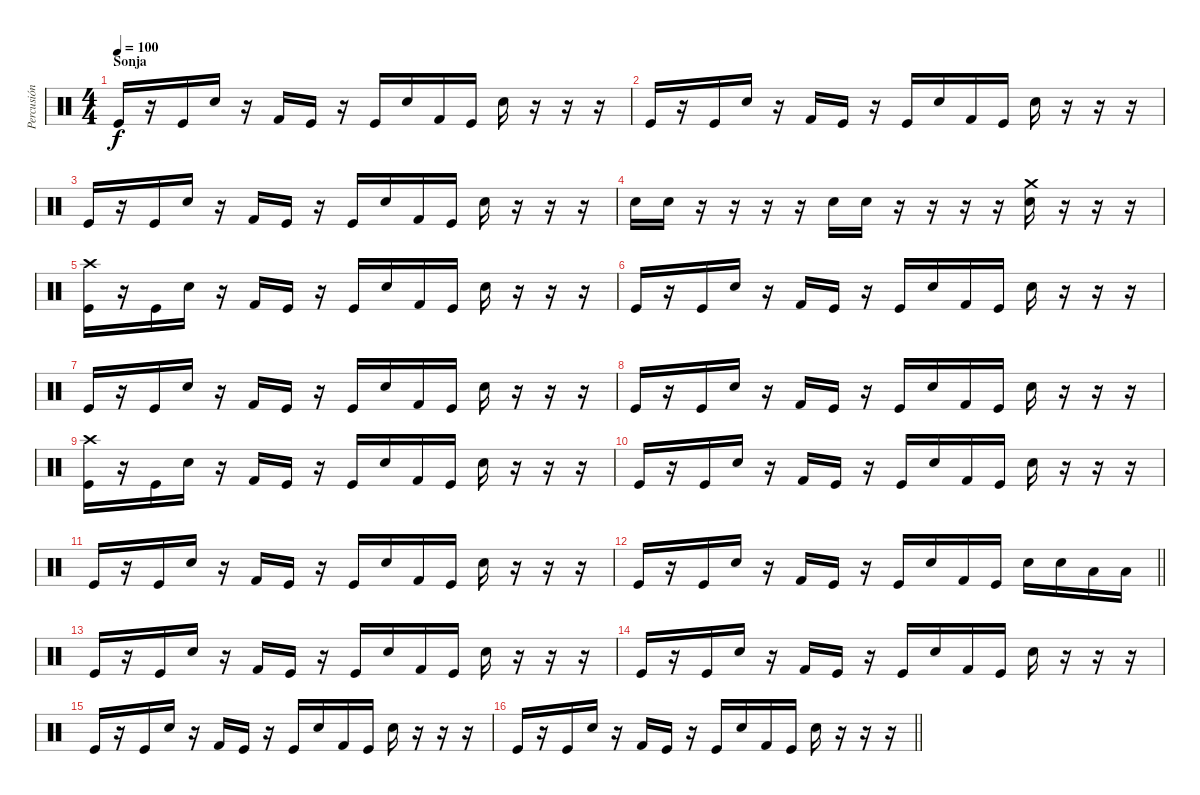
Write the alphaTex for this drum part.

\track ("Percusión" "Percusión") {instrument percussion}
\staff {score}
\articulation defaults
\ts (4 4)
\section ("" "Sonja")
\tempo 100
\clef neutral
\ks c "Kick (hit)".16{dy f}
r.16 "Kick (hit)".16 "Electric Snare (hit)".16 r.16 "Kick (hit) 2".16 "Kick (hit)".16 r.16 "Kick (hit)".16 "Electric Snare (hit)".16 "Kick (hit) 2".16 "Kick (hit)".16 "Electric Snare (hit)".16 r.16 r.16 r.16 |
"Kick (hit)".16 r.16 "Kick (hit)".16 "Electric Snare (hit)".16 r.16 "Kick (hit) 2".16 "Kick (hit)".16 r.16 "Kick (hit)".16 "Electric Snare (hit)".16 "Kick (hit) 2".16 "Kick (hit)".16 "Electric Snare (hit)".16 r.16 r.16 r.16 |
"Kick (hit)".16 r.16 "Kick (hit)".16 "Electric Snare (hit)".16 r.16 "Kick (hit) 2".16 "Kick (hit)".16 r.16 "Kick (hit)".16 "Electric Snare (hit)".16 "Kick (hit) 2".16 "Kick (hit)".16 "Electric Snare (hit)".16 r.16 r.16 r.16 |
"Electric Snare (hit)".16 "Electric Snare (hit)".16 r.16 r.16 r.16 r.16 "Electric Snare (hit)".16 "Electric Snare (hit)".16 r.16 r.16 r.16 r.16 ("Crash medium (hit)" "Electric Snare (hit)").16 r.16 r.16 r.16 |
("Crash high (hit)" "Kick (hit)").16 r.16 "Kick (hit)".16 "Electric Snare (hit)".16 r.16 "Kick (hit) 2".16 "Kick (hit)".16 r.16 "Kick (hit)".16 "Electric Snare (hit)".16 "Kick (hit) 2".16 "Kick (hit)".16 "Electric Snare (hit)".16 r.16 r.16 r.16 |
"Kick (hit)".16 r.16 "Kick (hit)".16 "Electric Snare (hit)".16 r.16 "Kick (hit) 2".16 "Kick (hit)".16 r.16 "Kick (hit)".16 "Electric Snare (hit)".16 "Kick (hit) 2".16 "Kick (hit)".16 "Electric Snare (hit)".16 r.16 r.16 r.16 |
"Kick (hit)".16 r.16 "Kick (hit)".16 "Electric Snare (hit)".16 r.16 "Kick (hit) 2".16 "Kick (hit)".16 r.16 "Kick (hit)".16 "Electric Snare (hit)".16 "Kick (hit) 2".16 "Kick (hit)".16 "Electric Snare (hit)".16 r.16 r.16 r.16 |
"Kick (hit)".16 r.16 "Kick (hit)".16 "Electric Snare (hit)".16 r.16 "Kick (hit) 2".16 "Kick (hit)".16 r.16 "Kick (hit)".16 "Electric Snare (hit)".16 "Kick (hit) 2".16 "Kick (hit)".16 "Electric Snare (hit)".16 r.16 r.16 r.16 |
("Crash high (hit)" "Kick (hit)").16 r.16 "Kick (hit)".16 "Electric Snare (hit)".16 r.16 "Kick (hit) 2".16 "Kick (hit)".16 r.16 "Kick (hit)".16 "Electric Snare (hit)".16 "Kick (hit) 2".16 "Kick (hit)".16 "Electric Snare (hit)".16 r.16 r.16 r.16 |
"Kick (hit)".16 r.16 "Kick (hit)".16 "Electric Snare (hit)".16 r.16 "Kick (hit) 2".16 "Kick (hit)".16 r.16 "Kick (hit)".16 "Electric Snare (hit)".16 "Kick (hit) 2".16 "Kick (hit)".16 "Electric Snare (hit)".16 r.16 r.16 r.16 |
"Kick (hit)".16 r.16 "Kick (hit)".16 "Electric Snare (hit)".16 r.16 "Kick (hit) 2".16 "Kick (hit)".16 r.16 "Kick (hit)".16 "Electric Snare (hit)".16 "Kick (hit) 2".16 "Kick (hit)".16 "Electric Snare (hit)".16 r.16 r.16 r.16 |
\barLineRight lightlight "Kick (hit)".16
r.16 "Kick (hit)".16 "Electric Snare (hit)".16 r.16 "Kick (hit) 2".16 "Kick (hit)".16 r.16 "Kick (hit)".16 "Electric Snare (hit)".16 "Kick (hit) 2".16 "Kick (hit)".16 "Electric Snare (hit)".16 "Electric Snare (hit)".16 "Low Tom (hit)".16 "Low Tom (hit)".16 |
"Kick (hit)".16 r.16 "Kick (hit)".16 "Electric Snare (hit)".16 r.16 "Kick (hit) 2".16 "Kick (hit)".16 r.16 "Kick (hit)".16 "Electric Snare (hit)".16 "Kick (hit) 2".16 "Kick (hit)".16 "Electric Snare (hit)".16 r.16 r.16 r.16 |
"Kick (hit)".16 r.16 "Kick (hit)".16 "Electric Snare (hit)".16 r.16 "Kick (hit) 2".16 "Kick (hit)".16 r.16 "Kick (hit)".16 "Electric Snare (hit)".16 "Kick (hit) 2".16 "Kick (hit)".16 "Electric Snare (hit)".16 r.16 r.16 r.16 |
"Kick (hit)".16 r.16 "Kick (hit)".16 "Electric Snare (hit)".16 r.16 "Kick (hit) 2".16 "Kick (hit)".16 r.16 "Kick (hit)".16 "Electric Snare (hit)".16 "Kick (hit) 2".16 "Kick (hit)".16 "Electric Snare (hit)".16 r.16 r.16 r.16 |
\barLineRight lightlight "Kick (hit)".16
r.16 "Kick (hit)".16 "Electric Snare (hit)".16 r.16 "Kick (hit) 2".16 "Kick (hit)".16 r.16 "Kick (hit)".16 "Electric Snare (hit)".16 "Kick (hit) 2".16 "Kick (hit)".16 "Electric Snare (hit)".16 r.16 r.16 r.16
